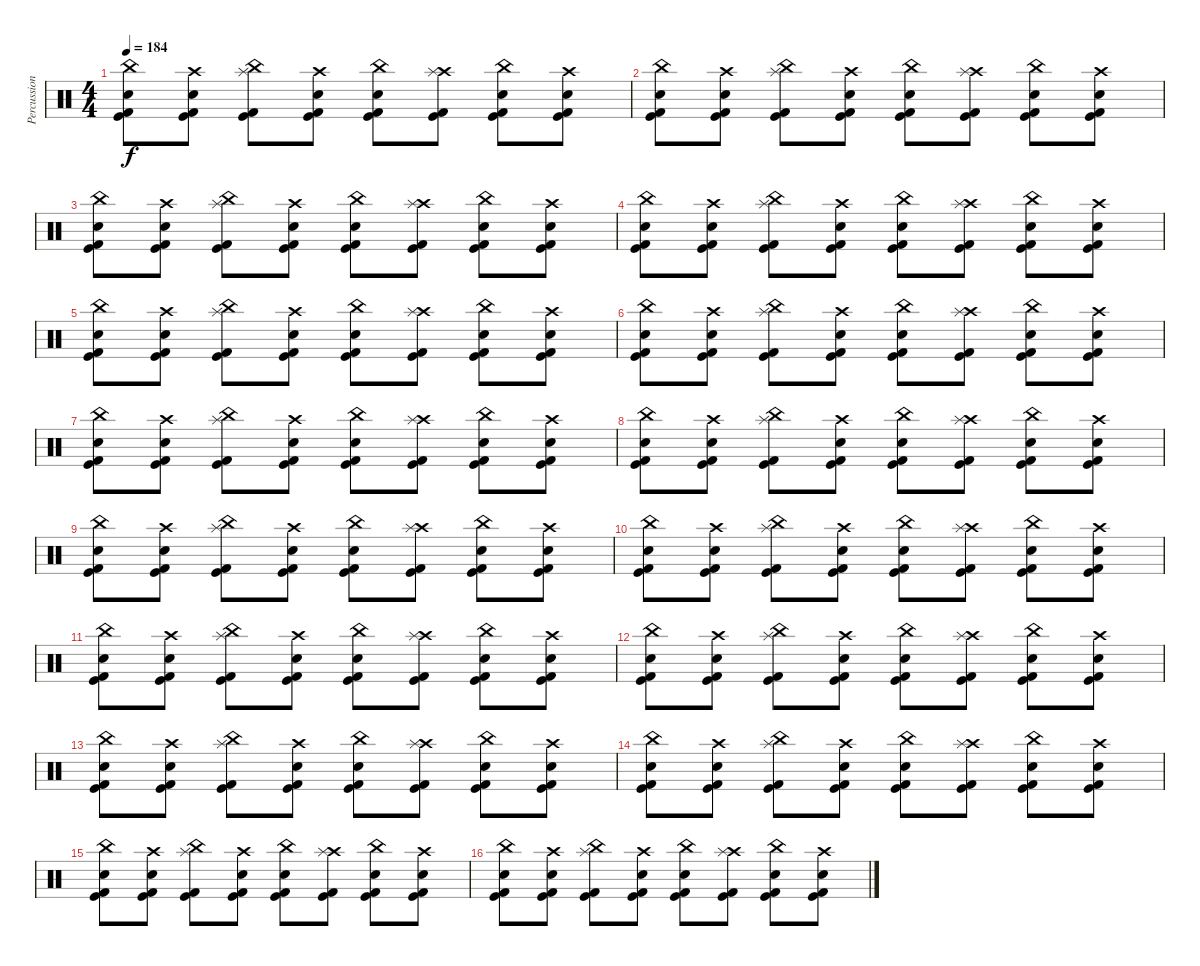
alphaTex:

\track ("Percussion" "Percussion") {solo instrument percussion}
\staff {score}
\articulation defaults
\ts (4 4)
\tempo 184
\clef neutral
\ks c
("China (hit)" "Kick (hit)" "Snare (hit) 2" "Kick (hit) 2").8{dy f} ("Crash high (hit)" "Kick (hit)" "Snare (hit) 2" "Kick (hit) 2").8 ("China (hit)" "Kick (hit)" "Splash (hit)" "Kick (hit) 2").8 ("Crash high (hit)" "Kick (hit)" "Snare (hit) 2" "Kick (hit) 2").8 ("China (hit)" "Kick (hit)" "Snare (hit) 2" "Kick (hit) 2").8 ("Crash high (hit)" "Kick (hit)" "Splash (hit)" "Kick (hit) 2").8 ("China (hit)" "Kick (hit)" "Snare (hit) 2" "Kick (hit) 2").8 ("Crash high (hit)" "Kick (hit)" "Snare (hit) 2" "Kick (hit) 2").8 |
("China (hit)" "Kick (hit)" "Snare (hit) 2" "Kick (hit) 2").8 ("Crash high (hit)" "Kick (hit)" "Snare (hit) 2" "Kick (hit) 2").8 ("China (hit)" "Kick (hit)" "Splash (hit)" "Kick (hit) 2").8 ("Crash high (hit)" "Kick (hit)" "Snare (hit) 2" "Kick (hit) 2").8 ("China (hit)" "Kick (hit)" "Snare (hit) 2" "Kick (hit) 2").8 ("Crash high (hit)" "Kick (hit)" "Splash (hit)" "Kick (hit) 2").8 ("China (hit)" "Kick (hit)" "Snare (hit) 2" "Kick (hit) 2").8 ("Crash high (hit)" "Kick (hit)" "Snare (hit) 2" "Kick (hit) 2").8 |
("China (hit)" "Kick (hit)" "Snare (hit) 2" "Kick (hit) 2").8 ("Crash high (hit)" "Kick (hit)" "Snare (hit) 2" "Kick (hit) 2").8 ("China (hit)" "Kick (hit)" "Splash (hit)" "Kick (hit) 2").8 ("Crash high (hit)" "Kick (hit)" "Snare (hit) 2" "Kick (hit) 2").8 ("China (hit)" "Kick (hit)" "Snare (hit) 2" "Kick (hit) 2").8 ("Crash high (hit)" "Kick (hit)" "Splash (hit)" "Kick (hit) 2").8 ("China (hit)" "Kick (hit)" "Snare (hit) 2" "Kick (hit) 2").8 ("Crash high (hit)" "Kick (hit)" "Snare (hit) 2" "Kick (hit) 2").8 |
("China (hit)" "Kick (hit)" "Snare (hit) 2" "Kick (hit) 2").8 ("Crash high (hit)" "Kick (hit)" "Snare (hit) 2" "Kick (hit) 2").8 ("China (hit)" "Kick (hit)" "Splash (hit)" "Kick (hit) 2").8 ("Crash high (hit)" "Kick (hit)" "Snare (hit) 2" "Kick (hit) 2").8 ("China (hit)" "Kick (hit)" "Snare (hit) 2" "Kick (hit) 2").8 ("Crash high (hit)" "Kick (hit)" "Splash (hit)" "Kick (hit) 2").8 ("China (hit)" "Kick (hit)" "Snare (hit) 2" "Kick (hit) 2").8 ("Crash high (hit)" "Kick (hit)" "Snare (hit) 2" "Kick (hit) 2").8 |
("China (hit)" "Kick (hit)" "Snare (hit) 2" "Kick (hit) 2").8 ("Crash high (hit)" "Kick (hit)" "Snare (hit) 2" "Kick (hit) 2").8 ("China (hit)" "Kick (hit)" "Splash (hit)" "Kick (hit) 2").8 ("Crash high (hit)" "Kick (hit)" "Snare (hit) 2" "Kick (hit) 2").8 ("China (hit)" "Kick (hit)" "Snare (hit) 2" "Kick (hit) 2").8 ("Crash high (hit)" "Kick (hit)" "Splash (hit)" "Kick (hit) 2").8 ("China (hit)" "Kick (hit)" "Snare (hit) 2" "Kick (hit) 2").8 ("Crash high (hit)" "Kick (hit)" "Snare (hit) 2" "Kick (hit) 2").8 |
("China (hit)" "Kick (hit)" "Snare (hit) 2" "Kick (hit) 2").8 ("Crash high (hit)" "Kick (hit)" "Snare (hit) 2" "Kick (hit) 2").8 ("China (hit)" "Kick (hit)" "Splash (hit)" "Kick (hit) 2").8 ("Crash high (hit)" "Kick (hit)" "Snare (hit) 2" "Kick (hit) 2").8 ("China (hit)" "Kick (hit)" "Snare (hit) 2" "Kick (hit) 2").8 ("Crash high (hit)" "Kick (hit)" "Splash (hit)" "Kick (hit) 2").8 ("China (hit)" "Kick (hit)" "Snare (hit) 2" "Kick (hit) 2").8 ("Crash high (hit)" "Kick (hit)" "Snare (hit) 2" "Kick (hit) 2").8 |
("China (hit)" "Kick (hit)" "Snare (hit) 2" "Kick (hit) 2").8 ("Crash high (hit)" "Kick (hit)" "Snare (hit) 2" "Kick (hit) 2").8 ("China (hit)" "Kick (hit)" "Splash (hit)" "Kick (hit) 2").8 ("Crash high (hit)" "Kick (hit)" "Snare (hit) 2" "Kick (hit) 2").8 ("China (hit)" "Kick (hit)" "Snare (hit) 2" "Kick (hit) 2").8 ("Crash high (hit)" "Kick (hit)" "Splash (hit)" "Kick (hit) 2").8 ("China (hit)" "Kick (hit)" "Snare (hit) 2" "Kick (hit) 2").8 ("Crash high (hit)" "Kick (hit)" "Snare (hit) 2" "Kick (hit) 2").8 |
("China (hit)" "Kick (hit)" "Snare (hit) 2" "Kick (hit) 2").8 ("Crash high (hit)" "Kick (hit)" "Snare (hit) 2" "Kick (hit) 2").8 ("China (hit)" "Kick (hit)" "Splash (hit)" "Kick (hit) 2").8 ("Crash high (hit)" "Kick (hit)" "Snare (hit) 2" "Kick (hit) 2").8 ("China (hit)" "Kick (hit)" "Snare (hit) 2" "Kick (hit) 2").8 ("Crash high (hit)" "Kick (hit)" "Splash (hit)" "Kick (hit) 2").8 ("China (hit)" "Kick (hit)" "Snare (hit) 2" "Kick (hit) 2").8 ("Crash high (hit)" "Kick (hit)" "Snare (hit) 2" "Kick (hit) 2").8 |
("China (hit)" "Kick (hit)" "Snare (hit) 2" "Kick (hit) 2").8 ("Crash high (hit)" "Kick (hit)" "Snare (hit) 2" "Kick (hit) 2").8 ("China (hit)" "Kick (hit)" "Splash (hit)" "Kick (hit) 2").8 ("Crash high (hit)" "Kick (hit)" "Snare (hit) 2" "Kick (hit) 2").8 ("China (hit)" "Kick (hit)" "Snare (hit) 2" "Kick (hit) 2").8 ("Crash high (hit)" "Kick (hit)" "Splash (hit)" "Kick (hit) 2").8 ("China (hit)" "Kick (hit)" "Snare (hit) 2" "Kick (hit) 2").8 ("Crash high (hit)" "Kick (hit)" "Snare (hit) 2" "Kick (hit) 2").8 |
("China (hit)" "Kick (hit)" "Snare (hit) 2" "Kick (hit) 2").8 ("Crash high (hit)" "Kick (hit)" "Snare (hit) 2" "Kick (hit) 2").8 ("China (hit)" "Kick (hit)" "Splash (hit)" "Kick (hit) 2").8 ("Crash high (hit)" "Kick (hit)" "Snare (hit) 2" "Kick (hit) 2").8 ("China (hit)" "Kick (hit)" "Snare (hit) 2" "Kick (hit) 2").8 ("Crash high (hit)" "Kick (hit)" "Splash (hit)" "Kick (hit) 2").8 ("China (hit)" "Kick (hit)" "Snare (hit) 2" "Kick (hit) 2").8 ("Crash high (hit)" "Kick (hit)" "Snare (hit) 2" "Kick (hit) 2").8 |
("China (hit)" "Kick (hit)" "Snare (hit) 2" "Kick (hit) 2").8 ("Crash high (hit)" "Kick (hit)" "Snare (hit) 2" "Kick (hit) 2").8 ("China (hit)" "Kick (hit)" "Splash (hit)" "Kick (hit) 2").8 ("Crash high (hit)" "Kick (hit)" "Snare (hit) 2" "Kick (hit) 2").8 ("China (hit)" "Kick (hit)" "Snare (hit) 2" "Kick (hit) 2").8 ("Crash high (hit)" "Kick (hit)" "Splash (hit)" "Kick (hit) 2").8 ("China (hit)" "Kick (hit)" "Snare (hit) 2" "Kick (hit) 2").8 ("Crash high (hit)" "Kick (hit)" "Snare (hit) 2" "Kick (hit) 2").8 |
("China (hit)" "Kick (hit)" "Snare (hit) 2" "Kick (hit) 2").8 ("Crash high (hit)" "Kick (hit)" "Snare (hit) 2" "Kick (hit) 2").8 ("China (hit)" "Kick (hit)" "Splash (hit)" "Kick (hit) 2").8 ("Crash high (hit)" "Kick (hit)" "Snare (hit) 2" "Kick (hit) 2").8 ("China (hit)" "Kick (hit)" "Snare (hit) 2" "Kick (hit) 2").8 ("Crash high (hit)" "Kick (hit)" "Splash (hit)" "Kick (hit) 2").8 ("China (hit)" "Kick (hit)" "Snare (hit) 2" "Kick (hit) 2").8 ("Crash high (hit)" "Kick (hit)" "Snare (hit) 2" "Kick (hit) 2").8 |
("China (hit)" "Kick (hit)" "Snare (hit) 2" "Kick (hit) 2").8 ("Crash high (hit)" "Kick (hit)" "Snare (hit) 2" "Kick (hit) 2").8 ("China (hit)" "Kick (hit)" "Splash (hit)" "Kick (hit) 2").8 ("Crash high (hit)" "Kick (hit)" "Snare (hit) 2" "Kick (hit) 2").8 ("China (hit)" "Kick (hit)" "Snare (hit) 2" "Kick (hit) 2").8 ("Crash high (hit)" "Kick (hit)" "Splash (hit)" "Kick (hit) 2").8 ("China (hit)" "Kick (hit)" "Snare (hit) 2" "Kick (hit) 2").8 ("Crash high (hit)" "Kick (hit)" "Snare (hit) 2" "Kick (hit) 2").8 |
("China (hit)" "Kick (hit)" "Snare (hit) 2" "Kick (hit) 2").8 ("Crash high (hit)" "Kick (hit)" "Snare (hit) 2" "Kick (hit) 2").8 ("China (hit)" "Kick (hit)" "Splash (hit)" "Kick (hit) 2").8 ("Crash high (hit)" "Kick (hit)" "Snare (hit) 2" "Kick (hit) 2").8 ("China (hit)" "Kick (hit)" "Snare (hit) 2" "Kick (hit) 2").8 ("Crash high (hit)" "Kick (hit)" "Splash (hit)" "Kick (hit) 2").8 ("China (hit)" "Kick (hit)" "Snare (hit) 2" "Kick (hit) 2").8 ("Crash high (hit)" "Kick (hit)" "Snare (hit) 2" "Kick (hit) 2").8 |
("China (hit)" "Kick (hit)" "Snare (hit) 2" "Kick (hit) 2").8 ("Crash high (hit)" "Kick (hit)" "Snare (hit) 2" "Kick (hit) 2").8 ("China (hit)" "Kick (hit)" "Splash (hit)" "Kick (hit) 2").8 ("Crash high (hit)" "Kick (hit)" "Snare (hit) 2" "Kick (hit) 2").8 ("China (hit)" "Kick (hit)" "Snare (hit) 2" "Kick (hit) 2").8 ("Crash high (hit)" "Kick (hit)" "Splash (hit)" "Kick (hit) 2").8 ("China (hit)" "Kick (hit)" "Snare (hit) 2" "Kick (hit) 2").8 ("Crash high (hit)" "Kick (hit)" "Snare (hit) 2" "Kick (hit) 2").8 |
("China (hit)" "Kick (hit)" "Snare (hit) 2" "Kick (hit) 2").8 ("Crash high (hit)" "Kick (hit)" "Snare (hit) 2" "Kick (hit) 2").8 ("China (hit)" "Kick (hit)" "Splash (hit)" "Kick (hit) 2").8 ("Crash high (hit)" "Kick (hit)" "Snare (hit) 2" "Kick (hit) 2").8 ("China (hit)" "Kick (hit)" "Snare (hit) 2" "Kick (hit) 2").8 ("Crash high (hit)" "Kick (hit)" "Splash (hit)" "Kick (hit) 2").8 ("China (hit)" "Kick (hit)" "Snare (hit) 2" "Kick (hit) 2").8 ("Crash high (hit)" "Kick (hit)" "Snare (hit) 2" "Kick (hit) 2").8
